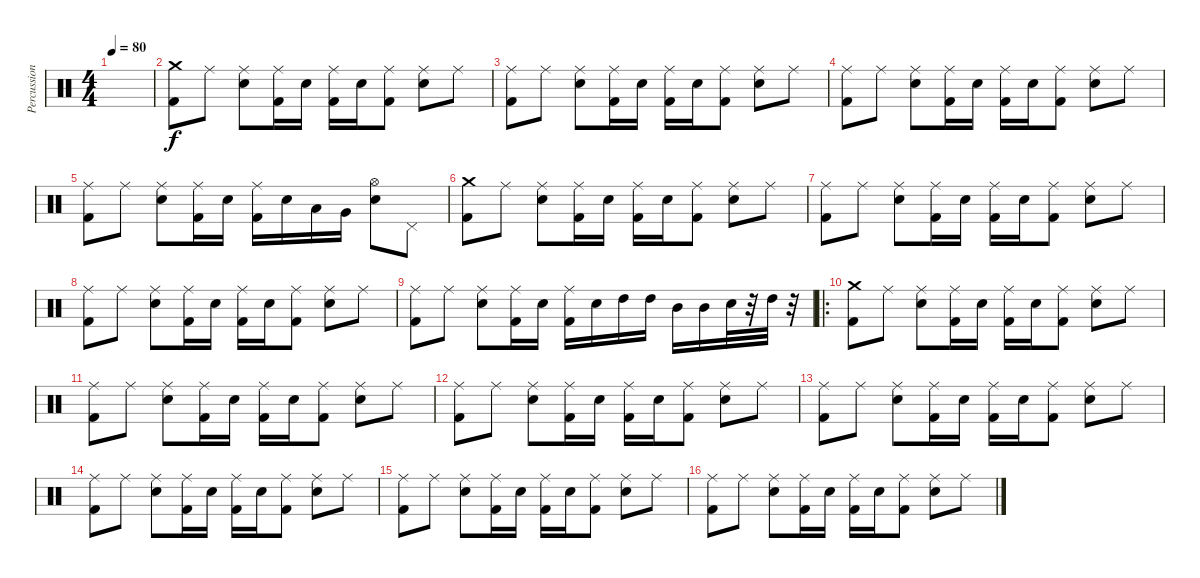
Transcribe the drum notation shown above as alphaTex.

\track ("Percussion" "Percussion") {instrument percussion}
\staff {score}
\articulation defaults
\ts (4 4)
\tempo 80
\clef neutral
\ks c
|
("Crash medium (hit)" "Kick (hit) 2").8{volume 7} "Ride (middle)".8 ("Ride (middle)" "Electric Snare (hit)").8 ("Ride (middle)" "Kick (hit) 2").16 "Electric Snare (hit)".16 ("Ride (middle)" "Kick (hit) 2").16 "Electric Snare (hit)".16 ("Ride (middle)" "Kick (hit) 2").8 ("Ride (middle)" "Electric Snare (hit)").8 "Ride (middle)".8 |
("Ride (middle)" "Kick (hit) 2").8 "Ride (middle)".8 ("Ride (middle)" "Electric Snare (hit)").8 ("Ride (middle)" "Kick (hit) 2").16 "Electric Snare (hit)".16 ("Ride (middle)" "Kick (hit) 2").16 "Electric Snare (hit)".16 ("Ride (middle)" "Kick (hit) 2").8 ("Ride (middle)" "Electric Snare (hit)").8 "Ride (middle)".8 |
("Ride (middle)" "Kick (hit) 2").8 "Ride (middle)".8 ("Ride (middle)" "Electric Snare (hit)").8 ("Ride (middle)" "Kick (hit) 2").16 "Electric Snare (hit)".16 ("Ride (middle)" "Kick (hit) 2").16 "Electric Snare (hit)".16 ("Ride (middle)" "Kick (hit) 2").8 ("Ride (middle)" "Electric Snare (hit)").8 "Ride (middle)".8 |
("Ride (middle)" "Kick (hit) 2").8 "Ride (middle)".8 ("Ride (middle)" "Electric Snare (hit)").8 ("Ride (middle)" "Kick (hit) 2").16 "Electric Snare (hit)".16 ("Ride (middle)" "Kick (hit) 2").16 "Electric Snare (hit)".16 "Low Tom (hit)".16 "Very Low Tom (hit)".16 ("Hi-Hat (open)" "Electric Snare (hit)").8 "Pedal Hi-Hat (hit)".8 |
("Crash medium (hit)" "Kick (hit) 2").8 "Ride (middle)".8 ("Ride (middle)" "Electric Snare (hit)").8 ("Ride (middle)" "Kick (hit) 2").16 "Electric Snare (hit)".16 ("Ride (middle)" "Kick (hit) 2").16 "Electric Snare (hit)".16 ("Ride (middle)" "Kick (hit) 2").8 ("Ride (middle)" "Electric Snare (hit)").8 "Ride (middle)".8 |
("Ride (middle)" "Kick (hit) 2").8 "Ride (middle)".8 ("Ride (middle)" "Electric Snare (hit)").8 ("Ride (middle)" "Kick (hit) 2").16 "Electric Snare (hit)".16 ("Ride (middle)" "Kick (hit) 2").16 "Electric Snare (hit)".16 ("Ride (middle)" "Kick (hit) 2").8 ("Ride (middle)" "Electric Snare (hit)").8 "Ride (middle)".8 |
("Ride (middle)" "Kick (hit) 2").8 "Ride (middle)".8 ("Ride (middle)" "Electric Snare (hit)").8 ("Ride (middle)" "Kick (hit) 2").16 "Electric Snare (hit)".16 ("Ride (middle)" "Kick (hit) 2").16 "Electric Snare (hit)".16 ("Ride (middle)" "Kick (hit) 2").8 ("Ride (middle)" "Electric Snare (hit)").8 "Ride (middle)".8 |
("Ride (middle)" "Kick (hit) 2").8 "Ride (middle)".8 ("Ride (middle)" "Electric Snare (hit)").8 ("Ride (middle)" "Kick (hit) 2").16 "Electric Snare (hit)".16 ("Ride (middle)" "Kick (hit) 2").16 "Electric Snare (hit)".16 "High Tom (hit)".16 "High Tom (hit)".16 "Mid Tom (hit)".16 "Mid Tom (hit)".16 "Electric Snare (hit)".32 r.32 "High Tom (hit)".32 r.32 |
\ro
("Crash medium (hit)" "Kick (hit) 2").8 "Ride (middle)".8 ("Ride (middle)" "Electric Snare (hit)").8 ("Ride (middle)" "Kick (hit) 2").16 "Electric Snare (hit)".16 ("Ride (middle)" "Kick (hit) 2").16 "Electric Snare (hit)".16 ("Ride (middle)" "Kick (hit) 2").8 ("Ride (middle)" "Electric Snare (hit)").8 "Ride (middle)".8 |
("Ride (middle)" "Kick (hit) 2").8 "Ride (middle)".8 ("Ride (middle)" "Electric Snare (hit)").8 ("Ride (middle)" "Kick (hit) 2").16 "Electric Snare (hit)".16 ("Ride (middle)" "Kick (hit) 2").16 "Electric Snare (hit)".16 ("Ride (middle)" "Kick (hit) 2").8 ("Ride (middle)" "Electric Snare (hit)").8 "Ride (middle)".8 |
("Ride (middle)" "Kick (hit) 2").8 "Ride (middle)".8 ("Ride (middle)" "Electric Snare (hit)").8 ("Ride (middle)" "Kick (hit) 2").16 "Electric Snare (hit)".16 ("Ride (middle)" "Kick (hit) 2").16 "Electric Snare (hit)".16 ("Ride (middle)" "Kick (hit) 2").8 ("Ride (middle)" "Electric Snare (hit)").8 "Ride (middle)".8 |
("Ride (middle)" "Kick (hit) 2").8 "Ride (middle)".8 ("Ride (middle)" "Electric Snare (hit)").8 ("Ride (middle)" "Kick (hit) 2").16 "Electric Snare (hit)".16 ("Ride (middle)" "Kick (hit) 2").16 "Electric Snare (hit)".16 ("Ride (middle)" "Kick (hit) 2").8 ("Ride (middle)" "Electric Snare (hit)").8 "Ride (middle)".8 |
("Ride (middle)" "Kick (hit) 2").8 "Ride (middle)".8 ("Ride (middle)" "Electric Snare (hit)").8 ("Ride (middle)" "Kick (hit) 2").16 "Electric Snare (hit)".16 ("Ride (middle)" "Kick (hit) 2").16 "Electric Snare (hit)".16 ("Ride (middle)" "Kick (hit) 2").8 ("Ride (middle)" "Electric Snare (hit)").8 "Ride (middle)".8 |
("Ride (middle)" "Kick (hit) 2").8 "Ride (middle)".8 ("Ride (middle)" "Electric Snare (hit)").8 ("Ride (middle)" "Kick (hit) 2").16 "Electric Snare (hit)".16 ("Ride (middle)" "Kick (hit) 2").16 "Electric Snare (hit)".16 ("Ride (middle)" "Kick (hit) 2").8 ("Ride (middle)" "Electric Snare (hit)").8 "Ride (middle)".8 |
("Ride (middle)" "Kick (hit) 2").8 "Ride (middle)".8 ("Ride (middle)" "Electric Snare (hit)").8 ("Ride (middle)" "Kick (hit) 2").16 "Electric Snare (hit)".16 ("Ride (middle)" "Kick (hit) 2").16 "Electric Snare (hit)".16 ("Ride (middle)" "Kick (hit) 2").8 ("Ride (middle)" "Electric Snare (hit)").8 "Ride (middle)".8
